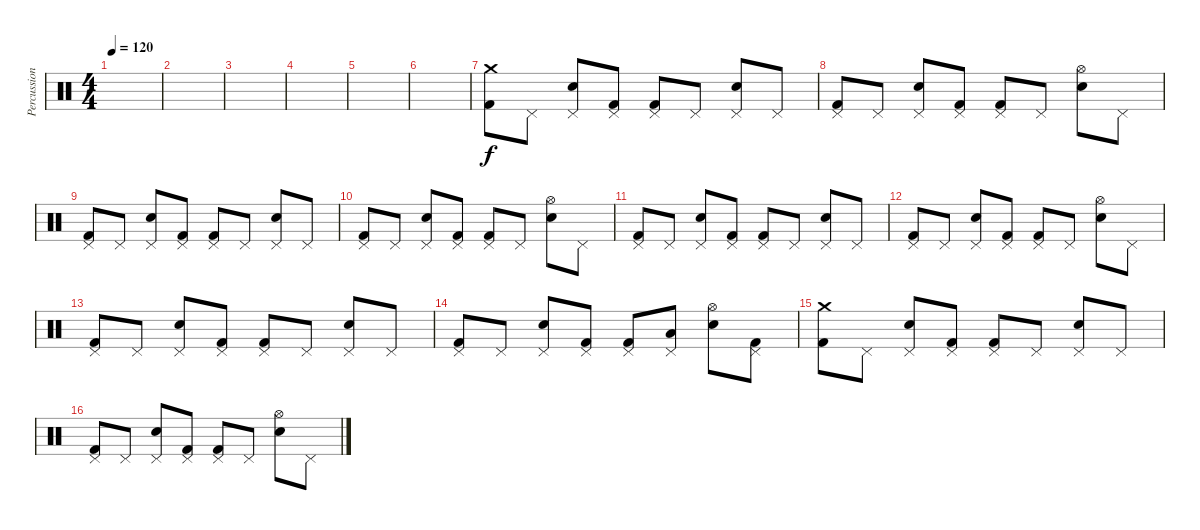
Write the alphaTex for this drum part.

\track ("Percussions" "Percussion") {instrument percussion}
\staff {score}
\articulation defaults
\ts (4 4)
\tempo 120
\clef neutral
\ks c
|
|
|
|
|
|
("Crash medium (hit)" "Kick (hit) 2").8 "Pedal Hi-Hat (hit)".8 ("Pedal Hi-Hat (hit)" "Snare (hit) 2").8 ("Pedal Hi-Hat (hit)" "Kick (hit) 2").8 ("Pedal Hi-Hat (hit)" "Kick (hit) 2").8 "Pedal Hi-Hat (hit)".8 ("Pedal Hi-Hat (hit)" "Snare (hit) 2").8 "Pedal Hi-Hat (hit)".8 |
("Pedal Hi-Hat (hit)" "Kick (hit) 2").8 "Pedal Hi-Hat (hit)".8 ("Pedal Hi-Hat (hit)" "Snare (hit) 2").8 ("Pedal Hi-Hat (hit)" "Kick (hit) 2").8 ("Pedal Hi-Hat (hit)" "Kick (hit) 2").8 "Pedal Hi-Hat (hit)".8 ("Hi-Hat (open)" "Snare (hit) 2").8 "Pedal Hi-Hat (hit)".8 |
("Pedal Hi-Hat (hit)" "Kick (hit) 2").8 "Pedal Hi-Hat (hit)".8 ("Pedal Hi-Hat (hit)" "Snare (hit) 2").8 ("Pedal Hi-Hat (hit)" "Kick (hit) 2").8 ("Pedal Hi-Hat (hit)" "Kick (hit) 2").8 "Pedal Hi-Hat (hit)".8 ("Pedal Hi-Hat (hit)" "Snare (hit) 2").8 "Pedal Hi-Hat (hit)".8 |
("Pedal Hi-Hat (hit)" "Kick (hit) 2").8 "Pedal Hi-Hat (hit)".8 ("Pedal Hi-Hat (hit)" "Snare (hit) 2").8 ("Pedal Hi-Hat (hit)" "Kick (hit) 2").8 ("Pedal Hi-Hat (hit)" "Kick (hit) 2").8 "Pedal Hi-Hat (hit)".8 ("Hi-Hat (open)" "Snare (hit) 2").8 "Pedal Hi-Hat (hit)".8 |
("Pedal Hi-Hat (hit)" "Kick (hit) 2").8 "Pedal Hi-Hat (hit)".8 ("Pedal Hi-Hat (hit)" "Snare (hit) 2").8 ("Pedal Hi-Hat (hit)" "Kick (hit) 2").8 ("Pedal Hi-Hat (hit)" "Kick (hit) 2").8 "Pedal Hi-Hat (hit)".8 ("Pedal Hi-Hat (hit)" "Snare (hit) 2").8 "Pedal Hi-Hat (hit)".8 |
("Pedal Hi-Hat (hit)" "Kick (hit) 2").8 "Pedal Hi-Hat (hit)".8 ("Pedal Hi-Hat (hit)" "Snare (hit) 2").8 ("Pedal Hi-Hat (hit)" "Kick (hit) 2").8 ("Pedal Hi-Hat (hit)" "Kick (hit) 2").8 "Pedal Hi-Hat (hit)".8 ("Hi-Hat (open)" "Snare (hit) 2").8 "Pedal Hi-Hat (hit)".8 |
("Pedal Hi-Hat (hit)" "Kick (hit) 2").8 "Pedal Hi-Hat (hit)".8 ("Pedal Hi-Hat (hit)" "Snare (hit) 2").8 ("Pedal Hi-Hat (hit)" "Kick (hit) 2").8 ("Pedal Hi-Hat (hit)" "Kick (hit) 2").8 "Pedal Hi-Hat (hit)".8 ("Pedal Hi-Hat (hit)" "Snare (hit) 2").8 "Pedal Hi-Hat (hit)".8 |
("Pedal Hi-Hat (hit)" "Kick (hit) 2").8 "Pedal Hi-Hat (hit)".8 ("Pedal Hi-Hat (hit)" "Snare (hit) 2").8 ("Pedal Hi-Hat (hit)" "Kick (hit) 2").8 ("Pedal Hi-Hat (hit)" "Kick (hit) 2").8 ("Pedal Hi-Hat (hit)" "Low Tom (hit)").8 ("Hi-Hat (open)" "Snare (hit) 2").8 ("Pedal Hi-Hat (hit)" "Kick (hit) 2").8 |
("Crash medium (hit)" "Kick (hit) 2").8 "Pedal Hi-Hat (hit)".8 ("Pedal Hi-Hat (hit)" "Snare (hit) 2").8 ("Pedal Hi-Hat (hit)" "Kick (hit) 2").8 ("Pedal Hi-Hat (hit)" "Kick (hit) 2").8 "Pedal Hi-Hat (hit)".8 ("Pedal Hi-Hat (hit)" "Snare (hit) 2").8 "Pedal Hi-Hat (hit)".8 |
("Pedal Hi-Hat (hit)" "Kick (hit) 2").8 "Pedal Hi-Hat (hit)".8 ("Pedal Hi-Hat (hit)" "Snare (hit) 2").8 ("Pedal Hi-Hat (hit)" "Kick (hit) 2").8 ("Pedal Hi-Hat (hit)" "Kick (hit) 2").8 "Pedal Hi-Hat (hit)".8 ("Hi-Hat (open)" "Snare (hit) 2").8 "Pedal Hi-Hat (hit)".8
